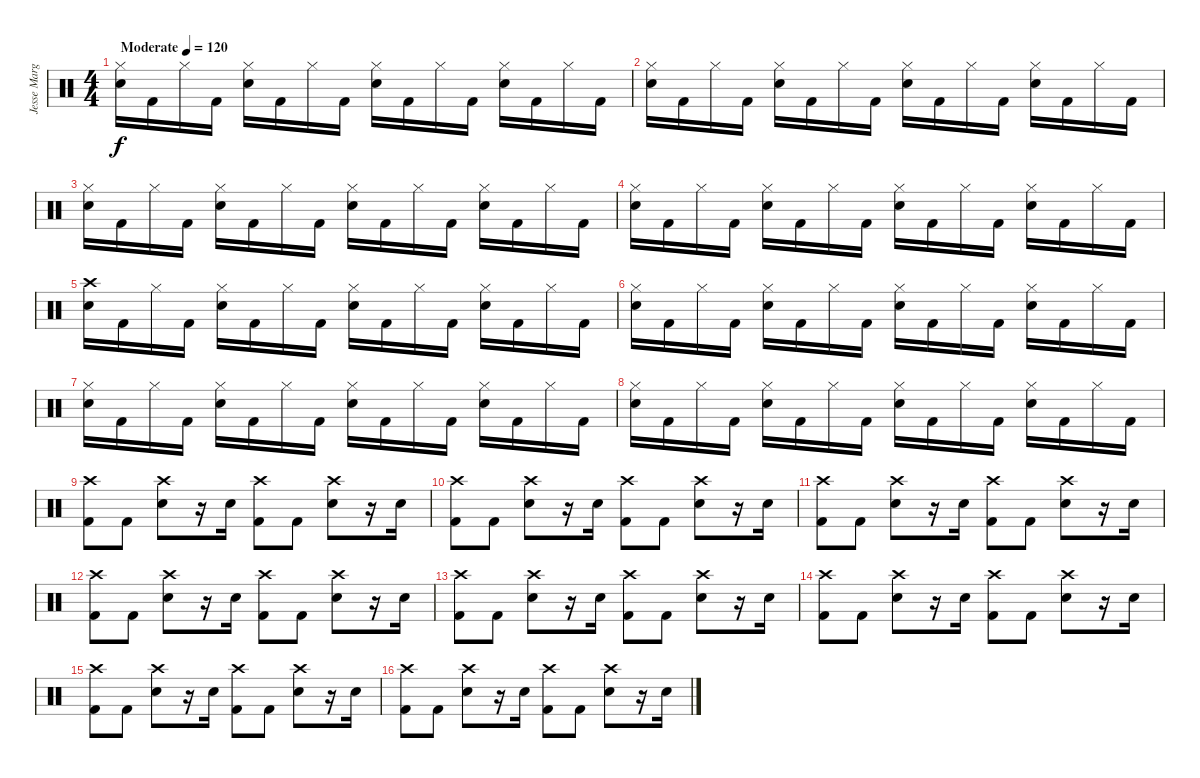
\track ("Jesse Margera" "Jesse Marg") {instrument percussion}
\staff {score}
\articulation defaults
\ts (4 4)
\tempo (120 "Moderate")
\clef neutral
\ks c
("Hi-Hat (closed)" "Electric Snare (hit)").16{dy f} "Kick (hit) 2".16 "Hi-Hat (closed)".16 "Kick (hit) 2".16 ("Hi-Hat (closed)" "Electric Snare (hit)").16 "Kick (hit) 2".16 "Hi-Hat (closed)".16 "Kick (hit) 2".16 ("Hi-Hat (closed)" "Electric Snare (hit)").16 "Kick (hit) 2".16 "Hi-Hat (closed)".16 "Kick (hit) 2".16 ("Hi-Hat (closed)" "Electric Snare (hit)").16 "Kick (hit) 2".16 "Hi-Hat (closed)".16 "Kick (hit) 2".16 |
("Hi-Hat (closed)" "Electric Snare (hit)").16 "Kick (hit) 2".16 "Hi-Hat (closed)".16 "Kick (hit) 2".16 ("Hi-Hat (closed)" "Electric Snare (hit)").16 "Kick (hit) 2".16 "Hi-Hat (closed)".16 "Kick (hit) 2".16 ("Hi-Hat (closed)" "Electric Snare (hit)").16 "Kick (hit) 2".16 "Hi-Hat (closed)".16 "Kick (hit) 2".16 ("Hi-Hat (closed)" "Electric Snare (hit)").16 "Kick (hit) 2".16 "Hi-Hat (closed)".16 "Kick (hit) 2".16 |
("Hi-Hat (closed)" "Electric Snare (hit)").16 "Kick (hit) 2".16 "Hi-Hat (closed)".16 "Kick (hit) 2".16 ("Hi-Hat (closed)" "Electric Snare (hit)").16 "Kick (hit) 2".16 "Hi-Hat (closed)".16 "Kick (hit) 2".16 ("Hi-Hat (closed)" "Electric Snare (hit)").16 "Kick (hit) 2".16 "Hi-Hat (closed)".16 "Kick (hit) 2".16 ("Hi-Hat (closed)" "Electric Snare (hit)").16 "Kick (hit) 2".16 "Hi-Hat (closed)".16 "Kick (hit) 2".16 |
("Hi-Hat (closed)" "Electric Snare (hit)").16 "Kick (hit) 2".16 "Hi-Hat (closed)".16 "Kick (hit) 2".16 ("Hi-Hat (closed)" "Electric Snare (hit)").16 "Kick (hit) 2".16 "Hi-Hat (closed)".16 "Kick (hit) 2".16 ("Hi-Hat (closed)" "Electric Snare (hit)").16 "Kick (hit) 2".16 "Hi-Hat (closed)".16 "Kick (hit) 2".16 ("Hi-Hat (closed)" "Electric Snare (hit)").16 "Kick (hit) 2".16 "Hi-Hat (closed)".16 "Kick (hit) 2".16 |
("Crash high (hit)" "Electric Snare (hit)").16 "Kick (hit) 2".16 "Hi-Hat (closed)".16 "Kick (hit) 2".16 ("Hi-Hat (closed)" "Electric Snare (hit)").16 "Kick (hit) 2".16 "Hi-Hat (closed)".16 "Kick (hit) 2".16 ("Hi-Hat (closed)" "Electric Snare (hit)").16 "Kick (hit) 2".16 "Hi-Hat (closed)".16 "Kick (hit) 2".16 ("Hi-Hat (closed)" "Electric Snare (hit)").16 "Kick (hit) 2".16 "Hi-Hat (closed)".16 "Kick (hit) 2".16 |
("Hi-Hat (closed)" "Electric Snare (hit)").16 "Kick (hit) 2".16 "Hi-Hat (closed)".16 "Kick (hit) 2".16 ("Hi-Hat (closed)" "Electric Snare (hit)").16 "Kick (hit) 2".16 "Hi-Hat (closed)".16 "Kick (hit) 2".16 ("Hi-Hat (closed)" "Electric Snare (hit)").16 "Kick (hit) 2".16 "Hi-Hat (closed)".16 "Kick (hit) 2".16 ("Hi-Hat (closed)" "Electric Snare (hit)").16 "Kick (hit) 2".16 "Hi-Hat (closed)".16 "Kick (hit) 2".16 |
("Hi-Hat (closed)" "Electric Snare (hit)").16 "Kick (hit) 2".16 "Hi-Hat (closed)".16 "Kick (hit) 2".16 ("Hi-Hat (closed)" "Electric Snare (hit)").16 "Kick (hit) 2".16 "Hi-Hat (closed)".16 "Kick (hit) 2".16 ("Hi-Hat (closed)" "Electric Snare (hit)").16 "Kick (hit) 2".16 "Hi-Hat (closed)".16 "Kick (hit) 2".16 ("Hi-Hat (closed)" "Electric Snare (hit)").16 "Kick (hit) 2".16 "Hi-Hat (closed)".16 "Kick (hit) 2".16 |
("Hi-Hat (closed)" "Electric Snare (hit)").16 "Kick (hit) 2".16 "Hi-Hat (closed)".16 "Kick (hit) 2".16 ("Hi-Hat (closed)" "Electric Snare (hit)").16 "Kick (hit) 2".16 "Hi-Hat (closed)".16 "Kick (hit) 2".16 ("Hi-Hat (closed)" "Electric Snare (hit)").16 "Kick (hit) 2".16 "Hi-Hat (closed)".16 "Kick (hit) 2".16 ("Hi-Hat (closed)" "Electric Snare (hit)").16 "Kick (hit) 2".16 "Hi-Hat (closed)".16 "Kick (hit) 2".16 |
("Crash high (hit)" "Kick (hit) 2").8 "Kick (hit) 2".8 ("Crash high (hit)" "Electric Snare (hit)").8 r.16 "Electric Snare (hit)".16 ("Crash high (hit)" "Kick (hit) 2").8 "Kick (hit) 2".8 ("Crash high (hit)" "Electric Snare (hit)").8 r.16 "Electric Snare (hit)".16 |
("Crash high (hit)" "Kick (hit) 2").8 "Kick (hit) 2".8 ("Crash high (hit)" "Electric Snare (hit)").8 r.16 "Electric Snare (hit)".16 ("Crash high (hit)" "Kick (hit) 2").8 "Kick (hit) 2".8 ("Crash high (hit)" "Electric Snare (hit)").8 r.16 "Electric Snare (hit)".16 |
("Crash high (hit)" "Kick (hit) 2").8 "Kick (hit) 2".8 ("Crash high (hit)" "Electric Snare (hit)").8 r.16 "Electric Snare (hit)".16 ("Crash high (hit)" "Kick (hit) 2").8 "Kick (hit) 2".8 ("Crash high (hit)" "Electric Snare (hit)").8 r.16 "Electric Snare (hit)".16 |
("Crash high (hit)" "Kick (hit) 2").8 "Kick (hit) 2".8 ("Crash high (hit)" "Electric Snare (hit)").8 r.16 "Electric Snare (hit)".16 ("Crash high (hit)" "Kick (hit) 2").8 "Kick (hit) 2".8 ("Crash high (hit)" "Electric Snare (hit)").8 r.16 "Electric Snare (hit)".16 |
("Crash high (hit)" "Kick (hit) 2").8 "Kick (hit) 2".8 ("Crash high (hit)" "Electric Snare (hit)").8 r.16 "Electric Snare (hit)".16 ("Crash high (hit)" "Kick (hit) 2").8 "Kick (hit) 2".8 ("Crash high (hit)" "Electric Snare (hit)").8 r.16 "Electric Snare (hit)".16 |
("Crash high (hit)" "Kick (hit) 2").8 "Kick (hit) 2".8 ("Crash high (hit)" "Electric Snare (hit)").8 r.16 "Electric Snare (hit)".16 ("Crash high (hit)" "Kick (hit) 2").8 "Kick (hit) 2".8 ("Crash high (hit)" "Electric Snare (hit)").8 r.16 "Electric Snare (hit)".16 |
("Crash high (hit)" "Kick (hit) 2").8 "Kick (hit) 2".8 ("Crash high (hit)" "Electric Snare (hit)").8 r.16 "Electric Snare (hit)".16 ("Crash high (hit)" "Kick (hit) 2").8 "Kick (hit) 2".8 ("Crash high (hit)" "Electric Snare (hit)").8 r.16 "Electric Snare (hit)".16 |
("Crash high (hit)" "Kick (hit) 2").8 "Kick (hit) 2".8 ("Crash high (hit)" "Electric Snare (hit)").8 r.16 "Electric Snare (hit)".16 ("Crash high (hit)" "Kick (hit) 2").8 "Kick (hit) 2".8 ("Crash high (hit)" "Electric Snare (hit)").8 r.16 "Electric Snare (hit)".16
